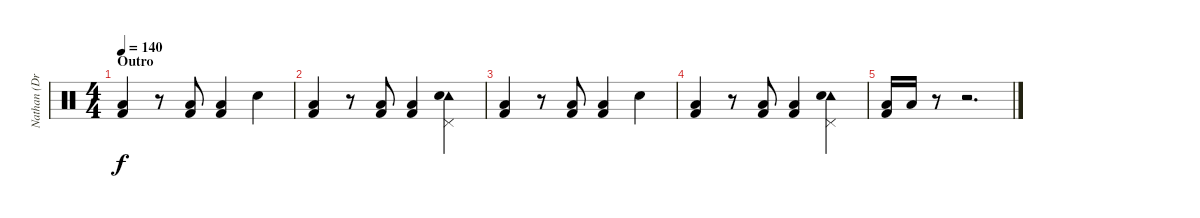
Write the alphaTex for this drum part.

\track ("Nathan (Drums)" "Nathan (Dr") {instrument percussion}
\staff {score}
\articulation defaults
\ts (4 4)
\section ("" "Outro")
\tempo 140
\clef neutral
\ks c
("Low Floor Tom (hit)" "Kick (hit) 2").4{dy f} r.8 ("Low Floor Tom (hit)" "Kick (hit) 2").8 ("Low Floor Tom (hit)" "Kick (hit) 2").4 "Electric Snare (hit)".4 |
("Low Floor Tom (hit)" "Kick (hit) 2").4 r.8 ("Low Floor Tom (hit)" "Kick (hit) 2").8 ("Low Floor Tom (hit)" "Kick (hit) 2").4 ("Pedal Hi-Hat (hit)" "Tambourine (hit)" "Electric Snare (hit)").4 |
("Low Floor Tom (hit)" "Kick (hit) 2").4 r.8 ("Low Floor Tom (hit)" "Kick (hit) 2").8 ("Low Floor Tom (hit)" "Kick (hit) 2").4 "Electric Snare (hit)".4 |
("Low Floor Tom (hit)" "Kick (hit) 2").4 r.8 ("Low Floor Tom (hit)" "Kick (hit) 2").8 ("Low Floor Tom (hit)" "Kick (hit) 2").4 ("Pedal Hi-Hat (hit)" "Tambourine (hit)" "Electric Snare (hit)").4 |
("Low Floor Tom (hit)" "Kick (hit) 2").16 "Low Floor Tom (hit)".16 r.8 r.2{d}
